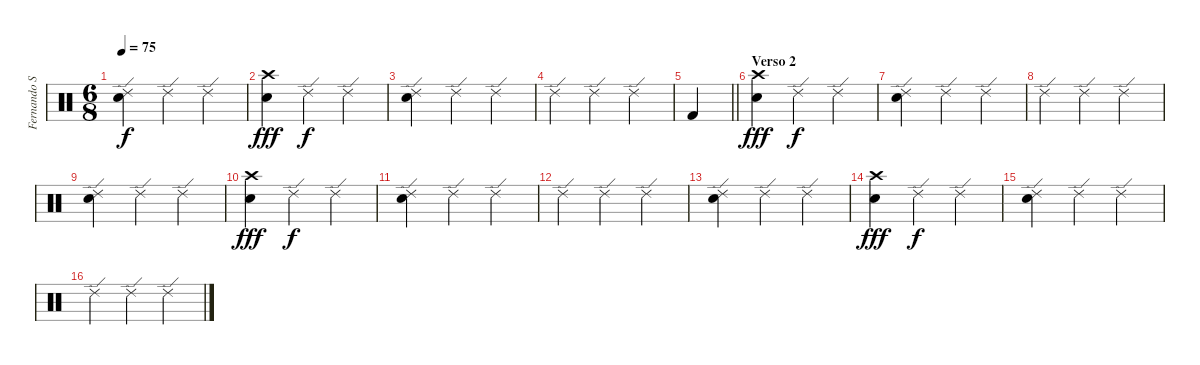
\track ("Fernando Scarcella " "Fernando S") {instrument percussion}
\staff {score}
\articulation defaults
\ts (6 8)
\tempo 75
\clef neutral
\ks c
("Electric Snare (hit)" "Ride (edge) 2").4{dy f} "Ride (edge) 2".4 "Ride (edge) 2".4 |
("Snare (hit) 2" "Crash high (hit)").4{dy fff} "Ride (edge) 2".4{dy f} "Ride (edge) 2".4 |
("Electric Snare (hit)" "Ride (edge) 2").4 "Ride (edge) 2".4 "Ride (edge) 2".4 |
"Ride (edge) 2".4 "Ride (edge) 2".4 "Ride (edge) 2".4 |
\barLineRight lightlight "Kick (hit) 2".4
|
\section ("" "Verso 2")
("Snare (hit) 2" "Crash high (hit)").4{dy fff} "Ride (edge) 2".4{dy f} "Ride (edge) 2".4 |
("Electric Snare (hit)" "Ride (edge) 2").4 "Ride (edge) 2".4 "Ride (edge) 2".4 |
"Ride (edge) 2".4 "Ride (edge) 2".4 "Ride (edge) 2".4 |
("Electric Snare (hit)" "Ride (edge) 2").4 "Ride (edge) 2".4 "Ride (edge) 2".4 |
("Snare (hit) 2" "Crash high (hit)").4{dy fff} "Ride (edge) 2".4{dy f} "Ride (edge) 2".4 |
("Electric Snare (hit)" "Ride (edge) 2").4 "Ride (edge) 2".4 "Ride (edge) 2".4 |
"Ride (edge) 2".4 "Ride (edge) 2".4 "Ride (edge) 2".4 |
("Electric Snare (hit)" "Ride (edge) 2").4 "Ride (edge) 2".4 "Ride (edge) 2".4 |
("Snare (hit) 2" "Crash high (hit)").4{dy fff} "Ride (edge) 2".4{dy f} "Ride (edge) 2".4 |
("Electric Snare (hit)" "Ride (edge) 2").4 "Ride (edge) 2".4 "Ride (edge) 2".4 |
"Ride (edge) 2".4 "Ride (edge) 2".4 "Ride (edge) 2".4
